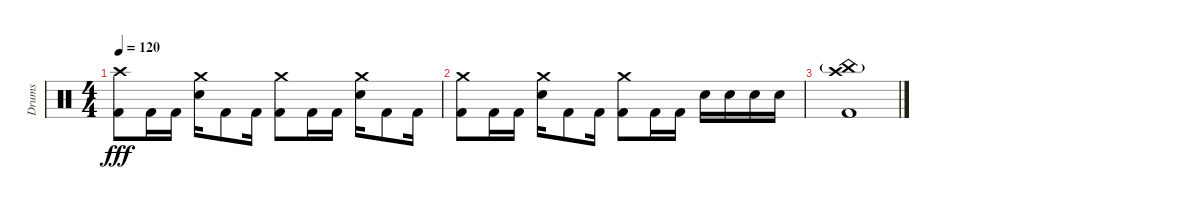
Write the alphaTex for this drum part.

\track ("Drums" "Drums") {instrument percussion}
\staff {score}
\articulation defaults
\ts (4 4)
\tempo 120
\clef neutral
\ks c
("Crash high (hit)" "Kick (hit) 2").8{dy fff} "Kick (hit) 2".16 "Kick (hit) 2".16 ("Crash medium (hit)" "Electric Snare (hit)").16 "Kick (hit) 2".8 "Kick (hit) 2".16 ("Crash medium (hit)" "Kick (hit) 2").8 "Kick (hit) 2".16 "Kick (hit) 2".16 ("Crash medium (hit)" "Electric Snare (hit)").16 "Kick (hit) 2".8 "Kick (hit) 2".16 |
("Crash medium (hit)" "Kick (hit) 2").8 "Kick (hit) 2".16 "Kick (hit) 2".16 ("Crash medium (hit)" "Electric Snare (hit)").16 "Kick (hit) 2".8 "Kick (hit) 2".16 ("Crash medium (hit)" "Kick (hit) 2").8 "Kick (hit) 2".16 "Kick (hit) 2".16 "Electric Snare (hit)".16 "Electric Snare (hit)".16 "Electric Snare (hit)".16 "Electric Snare (hit)".16 |
("Crash high (hit)" "China (hit)"{g} "Kick (hit) 2").1
